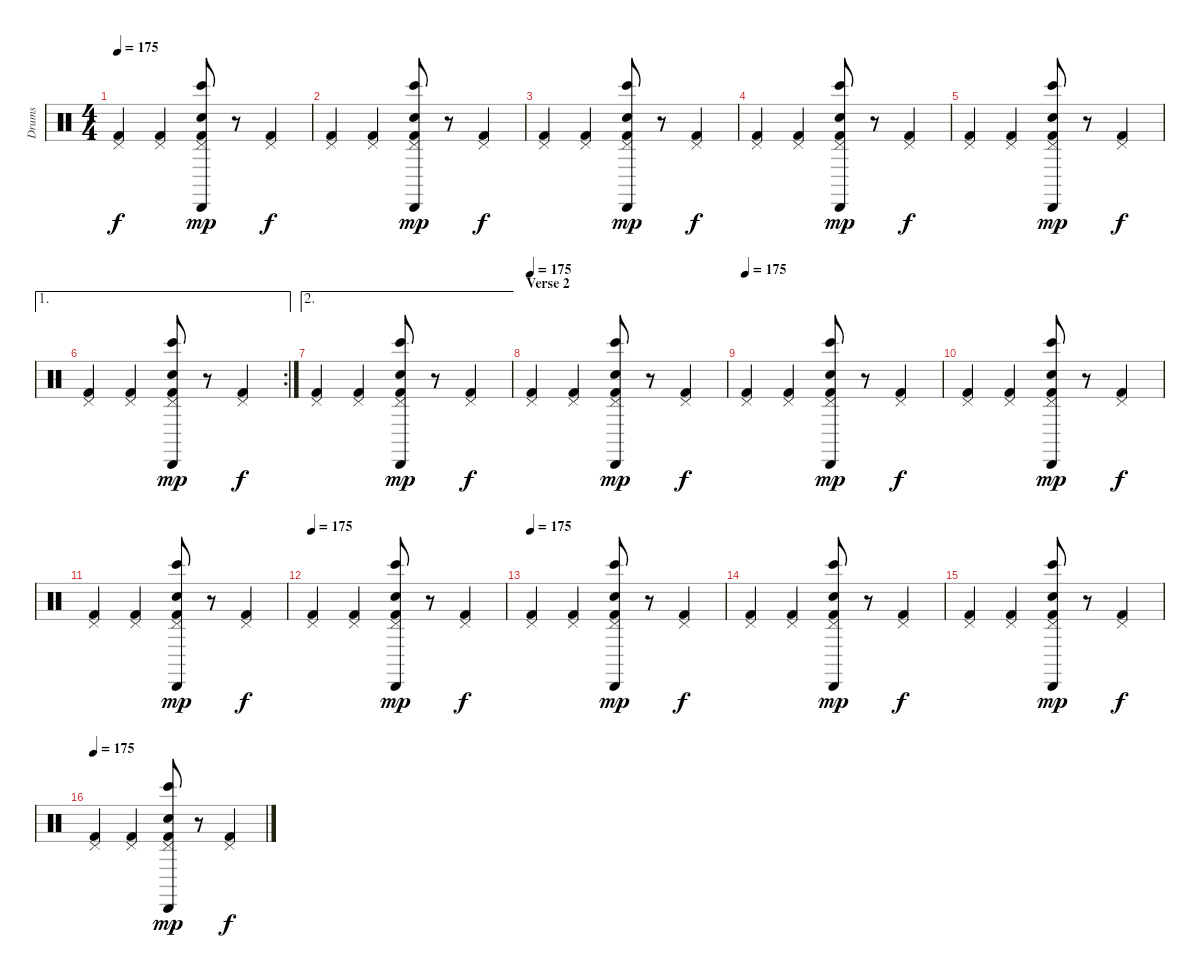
\track ("Drums" "Drums") {instrument percussion}
\staff {score}
\articulation defaults
\ts (4 4)
\tempo 175
\clef neutral
\ks c
("Pedal Hi-Hat (hit)" "Kick (hit) 2").4{dy f} ("Pedal Hi-Hat (hit)" "Kick (hit) 2").4 ("Cabasa (hit)" "Bongo High (hit)" "Pedal Hi-Hat (hit)" "Snare (hit) 2" "Kick (hit) 2").8{dy mp} r.8{volume 0} ("Pedal Hi-Hat (hit)" "Kick (hit) 2").4{dy f volume 14} |
("Pedal Hi-Hat (hit)" "Kick (hit) 2").4 ("Pedal Hi-Hat (hit)" "Kick (hit) 2").4 ("Cabasa (hit)" "Bongo High (hit)" "Pedal Hi-Hat (hit)" "Snare (hit) 2" "Kick (hit) 2").8{dy mp} r.8{volume 0} ("Pedal Hi-Hat (hit)" "Kick (hit) 2").4{dy f volume 14} |
("Pedal Hi-Hat (hit)" "Kick (hit) 2").4 ("Pedal Hi-Hat (hit)" "Kick (hit) 2").4 ("Cabasa (hit)" "Bongo High (hit)" "Pedal Hi-Hat (hit)" "Snare (hit) 2" "Kick (hit) 2").8{dy mp} r.8{volume 0} ("Pedal Hi-Hat (hit)" "Kick (hit) 2").4{dy f volume 14} |
("Pedal Hi-Hat (hit)" "Kick (hit) 2").4 ("Pedal Hi-Hat (hit)" "Kick (hit) 2").4 ("Cabasa (hit)" "Bongo High (hit)" "Pedal Hi-Hat (hit)" "Snare (hit) 2" "Kick (hit) 2").8{dy mp} r.8{volume 0} ("Pedal Hi-Hat (hit)" "Kick (hit) 2").4{dy f volume 14} |
("Pedal Hi-Hat (hit)" "Kick (hit) 2").4 ("Pedal Hi-Hat (hit)" "Kick (hit) 2").4 ("Cabasa (hit)" "Bongo High (hit)" "Pedal Hi-Hat (hit)" "Snare (hit) 2" "Kick (hit) 2").8{dy mp} r.8{volume 0} ("Pedal Hi-Hat (hit)" "Kick (hit) 2").4{dy f volume 14} |
\ae 1
\rc 2
("Pedal Hi-Hat (hit)" "Kick (hit) 2").4 ("Pedal Hi-Hat (hit)" "Kick (hit) 2").4 ("Cabasa (hit)" "Bongo High (hit)" "Pedal Hi-Hat (hit)" "Snare (hit) 2" "Kick (hit) 2").8{dy mp} r.8{volume 0} ("Pedal Hi-Hat (hit)" "Kick (hit) 2").4{dy f volume 14} |
\ae 2
("Pedal Hi-Hat (hit)" "Kick (hit) 2").4 ("Pedal Hi-Hat (hit)" "Kick (hit) 2").4 ("Cabasa (hit)" "Bongo High (hit)" "Pedal Hi-Hat (hit)" "Snare (hit) 2" "Kick (hit) 2").8{dy mp} r.8{volume 0} ("Pedal Hi-Hat (hit)" "Kick (hit) 2").4{dy f volume 14} |
\section ("" "Verse 2")
\tempo 175
("Pedal Hi-Hat (hit)" "Kick (hit) 2").4 ("Pedal Hi-Hat (hit)" "Kick (hit) 2").4 ("Cabasa (hit)" "Bongo High (hit)" "Pedal Hi-Hat (hit)" "Snare (hit) 2" "Kick (hit) 2").8{dy mp} r.8{volume 0} ("Pedal Hi-Hat (hit)" "Kick (hit) 2").4{dy f volume 14} |
\tempo 175
("Pedal Hi-Hat (hit)" "Kick (hit) 2").4 ("Pedal Hi-Hat (hit)" "Kick (hit) 2").4 ("Cabasa (hit)" "Bongo High (hit)" "Pedal Hi-Hat (hit)" "Snare (hit) 2" "Kick (hit) 2").8{dy mp} r.8{volume 0} ("Pedal Hi-Hat (hit)" "Kick (hit) 2").4{dy f volume 14} |
("Pedal Hi-Hat (hit)" "Kick (hit) 2").4 ("Pedal Hi-Hat (hit)" "Kick (hit) 2").4 ("Cabasa (hit)" "Bongo High (hit)" "Pedal Hi-Hat (hit)" "Snare (hit) 2" "Kick (hit) 2").8{dy mp} r.8{volume 0} ("Pedal Hi-Hat (hit)" "Kick (hit) 2").4{dy f volume 14} |
("Pedal Hi-Hat (hit)" "Kick (hit) 2").4 ("Pedal Hi-Hat (hit)" "Kick (hit) 2").4 ("Cabasa (hit)" "Bongo High (hit)" "Pedal Hi-Hat (hit)" "Snare (hit) 2" "Kick (hit) 2").8{dy mp} r.8{volume 0} ("Pedal Hi-Hat (hit)" "Kick (hit) 2").4{dy f volume 14} |
\tempo 175
("Pedal Hi-Hat (hit)" "Kick (hit) 2").4 ("Pedal Hi-Hat (hit)" "Kick (hit) 2").4 ("Cabasa (hit)" "Bongo High (hit)" "Pedal Hi-Hat (hit)" "Snare (hit) 2" "Kick (hit) 2").8{dy mp} r.8{volume 0} ("Pedal Hi-Hat (hit)" "Kick (hit) 2").4{dy f volume 14} |
\tempo 175
("Pedal Hi-Hat (hit)" "Kick (hit) 2").4 ("Pedal Hi-Hat (hit)" "Kick (hit) 2").4 ("Cabasa (hit)" "Bongo High (hit)" "Pedal Hi-Hat (hit)" "Snare (hit) 2" "Kick (hit) 2").8{dy mp} r.8{volume 0} ("Pedal Hi-Hat (hit)" "Kick (hit) 2").4{dy f volume 14} |
("Pedal Hi-Hat (hit)" "Kick (hit) 2").4 ("Pedal Hi-Hat (hit)" "Kick (hit) 2").4 ("Cabasa (hit)" "Bongo High (hit)" "Pedal Hi-Hat (hit)" "Snare (hit) 2" "Kick (hit) 2").8{dy mp} r.8{volume 0} ("Pedal Hi-Hat (hit)" "Kick (hit) 2").4{dy f volume 14} |
("Pedal Hi-Hat (hit)" "Kick (hit) 2").4 ("Pedal Hi-Hat (hit)" "Kick (hit) 2").4 ("Cabasa (hit)" "Bongo High (hit)" "Pedal Hi-Hat (hit)" "Snare (hit) 2" "Kick (hit) 2").8{dy mp} r.8{volume 0} ("Pedal Hi-Hat (hit)" "Kick (hit) 2").4{dy f volume 14} |
\tempo 175
("Pedal Hi-Hat (hit)" "Kick (hit) 2").4 ("Pedal Hi-Hat (hit)" "Kick (hit) 2").4 ("Cabasa (hit)" "Bongo High (hit)" "Pedal Hi-Hat (hit)" "Snare (hit) 2" "Kick (hit) 2").8{dy mp} r.8{volume 0} ("Pedal Hi-Hat (hit)" "Kick (hit) 2").4{dy f volume 14}
